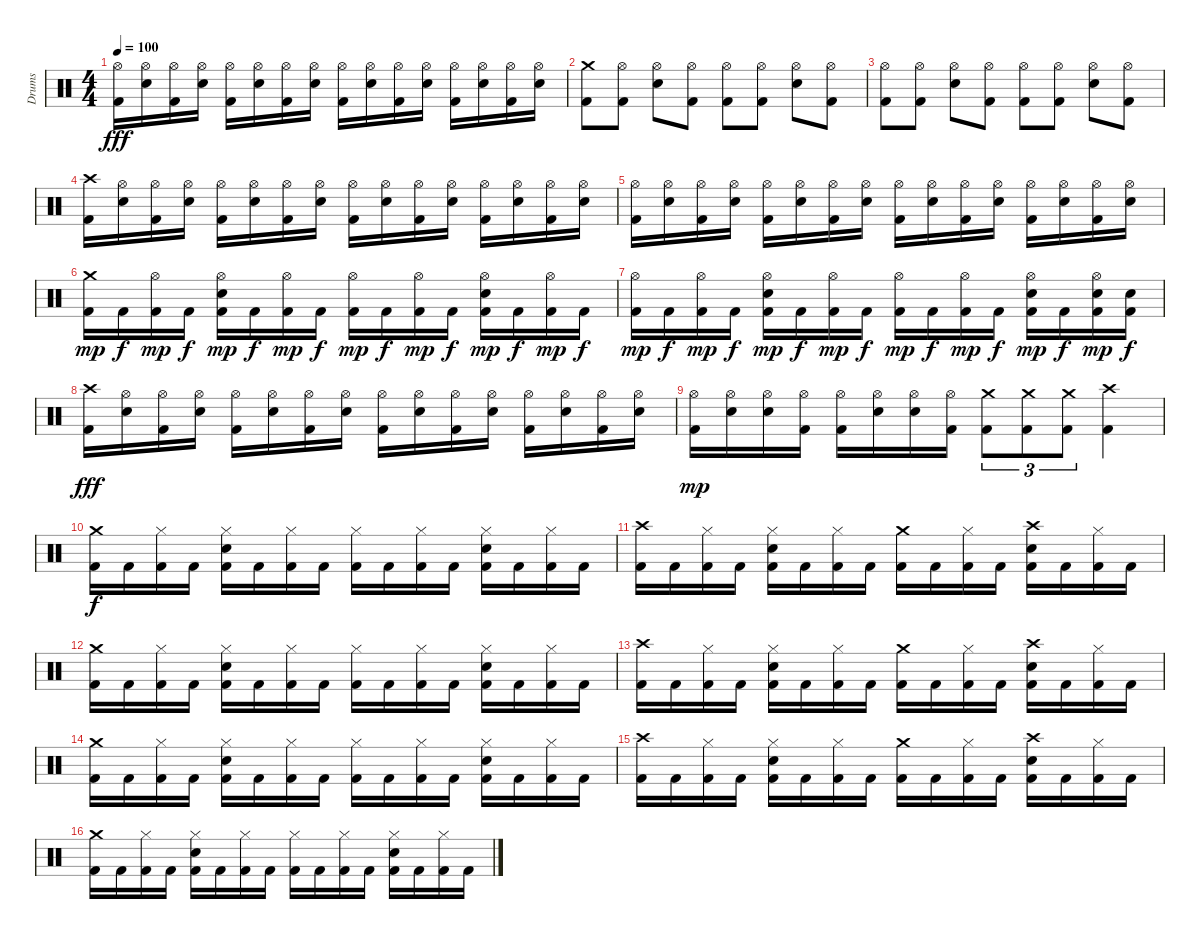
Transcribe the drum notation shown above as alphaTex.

\track ("Drums" "Drums") {instrument percussion}
\staff {score}
\articulation defaults
\ts (4 4)
\tempo 100
\clef neutral
\ks c
("Hi-Hat (open)" "Kick (hit) 2").16{dy fff} ("Hi-Hat (open)" "Snare (hit) 2").16 ("Hi-Hat (open)" "Kick (hit) 2").16 ("Hi-Hat (open)" "Snare (hit) 2").16 ("Hi-Hat (open)" "Kick (hit) 2").16 ("Hi-Hat (open)" "Snare (hit) 2").16 ("Hi-Hat (open)" "Kick (hit) 2").16 ("Hi-Hat (open)" "Snare (hit) 2").16 ("Hi-Hat (open)" "Kick (hit) 2").16 ("Hi-Hat (open)" "Snare (hit) 2").16 ("Hi-Hat (open)" "Kick (hit) 2").16 ("Hi-Hat (open)" "Snare (hit) 2").16 ("Hi-Hat (open)" "Kick (hit) 2").16 ("Hi-Hat (open)" "Snare (hit) 2").16 ("Hi-Hat (open)" "Kick (hit) 2").16 ("Hi-Hat (open)" "Snare (hit) 2").16 |
("Crash medium (hit)" "Kick (hit) 2").8 ("Hi-Hat (open)" "Kick (hit) 2").8 ("Hi-Hat (open)" "Snare (hit) 2").8 ("Hi-Hat (open)" "Kick (hit) 2").8 ("Hi-Hat (open)" "Kick (hit) 2").8 ("Hi-Hat (open)" "Kick (hit) 2").8 ("Hi-Hat (open)" "Snare (hit) 2").8 ("Hi-Hat (open)" "Kick (hit) 2").8 |
("Hi-Hat (open)" "Kick (hit) 2").8 ("Hi-Hat (open)" "Kick (hit) 2").8 ("Hi-Hat (open)" "Snare (hit) 2").8 ("Hi-Hat (open)" "Kick (hit) 2").8 ("Hi-Hat (open)" "Kick (hit) 2").8 ("Hi-Hat (open)" "Kick (hit) 2").8 ("Hi-Hat (open)" "Snare (hit) 2").8 ("Hi-Hat (open)" "Kick (hit) 2").8 |
("Crash high (hit)" "Kick (hit) 2").16 ("Hi-Hat (open)" "Snare (hit) 2").16 ("Hi-Hat (open)" "Kick (hit) 2").16 ("Hi-Hat (open)" "Snare (hit) 2").16 ("Hi-Hat (open)" "Kick (hit) 2").16 ("Hi-Hat (open)" "Snare (hit) 2").16 ("Hi-Hat (open)" "Kick (hit) 2").16 ("Hi-Hat (open)" "Snare (hit) 2").16 ("Hi-Hat (open)" "Kick (hit) 2").16 ("Hi-Hat (open)" "Snare (hit) 2").16 ("Hi-Hat (open)" "Kick (hit) 2").16 ("Hi-Hat (open)" "Snare (hit) 2").16 ("Hi-Hat (open)" "Kick (hit) 2").16 ("Hi-Hat (open)" "Snare (hit) 2").16 ("Hi-Hat (open)" "Kick (hit) 2").16 ("Hi-Hat (open)" "Snare (hit) 2").16 |
("Hi-Hat (open)" "Kick (hit) 2").16 ("Hi-Hat (open)" "Snare (hit) 2").16 ("Hi-Hat (open)" "Kick (hit) 2").16 ("Hi-Hat (open)" "Snare (hit) 2").16 ("Hi-Hat (open)" "Kick (hit) 2").16 ("Hi-Hat (open)" "Snare (hit) 2").16 ("Hi-Hat (open)" "Kick (hit) 2").16 ("Hi-Hat (open)" "Snare (hit) 2").16 ("Hi-Hat (open)" "Kick (hit) 2").16 ("Hi-Hat (open)" "Snare (hit) 2").16 ("Hi-Hat (open)" "Kick (hit) 2").16 ("Hi-Hat (open)" "Snare (hit) 2").16 ("Hi-Hat (open)" "Kick (hit) 2").16 ("Hi-Hat (open)" "Snare (hit) 2").16 ("Hi-Hat (open)" "Kick (hit) 2").16 ("Hi-Hat (open)" "Snare (hit) 2").16 |
("Crash medium (hit)" "Kick (hit) 2").16{dy mp} "Kick (hit) 2".16{dy f} ("Hi-Hat (open)" "Kick (hit) 2").16{dy mp} "Kick (hit) 2".16{dy f} ("Hi-Hat (open)" "Snare (hit) 2" "Kick (hit) 2").16{dy mp} "Kick (hit) 2".16{dy f} ("Hi-Hat (open)" "Kick (hit) 2").16{dy mp} "Kick (hit) 2".16{dy f} ("Hi-Hat (open)" "Kick (hit) 2").16{dy mp} "Kick (hit) 2".16{dy f} ("Hi-Hat (open)" "Kick (hit) 2").16{dy mp} "Kick (hit) 2".16{dy f} ("Hi-Hat (open)" "Snare (hit) 2" "Kick (hit) 2").16{dy mp} "Kick (hit) 2".16{dy f} ("Hi-Hat (open)" "Kick (hit) 2").16{dy mp} "Kick (hit) 2".16{dy f} |
("Hi-Hat (open)" "Kick (hit) 2").16{dy mp} "Kick (hit) 2".16{dy f} ("Hi-Hat (open)" "Kick (hit) 2").16{dy mp} "Kick (hit) 2".16{dy f} ("Hi-Hat (open)" "Snare (hit) 2" "Kick (hit) 2").16{dy mp} "Kick (hit) 2".16{dy f} ("Hi-Hat (open)" "Kick (hit) 2").16{dy mp} "Kick (hit) 2".16{dy f} ("Hi-Hat (open)" "Kick (hit) 2").16{dy mp} "Kick (hit) 2".16{dy f} ("Hi-Hat (open)" "Kick (hit) 2").16{dy mp} "Kick (hit) 2".16{dy f} ("Hi-Hat (open)" "Snare (hit) 2" "Kick (hit) 2").16{dy mp} "Kick (hit) 2".16{dy f} ("Hi-Hat (open)" "Snare (hit) 2" "Kick (hit) 2").16{dy mp} ("Snare (hit) 2" "Kick (hit) 2").16{dy f} |
("Crash high (hit)" "Kick (hit) 2").16{dy fff} ("Hi-Hat (open)" "Snare (hit) 2").16 ("Hi-Hat (open)" "Kick (hit) 2").16 ("Hi-Hat (open)" "Snare (hit) 2").16 ("Hi-Hat (open)" "Kick (hit) 2").16 ("Hi-Hat (open)" "Snare (hit) 2").16 ("Hi-Hat (open)" "Kick (hit) 2").16 ("Hi-Hat (open)" "Snare (hit) 2").16 ("Hi-Hat (open)" "Kick (hit) 2").16 ("Hi-Hat (open)" "Snare (hit) 2").16 ("Hi-Hat (open)" "Kick (hit) 2").16 ("Hi-Hat (open)" "Snare (hit) 2").16 ("Hi-Hat (open)" "Kick (hit) 2").16 ("Hi-Hat (open)" "Snare (hit) 2").16 ("Hi-Hat (open)" "Kick (hit) 2").16 ("Hi-Hat (open)" "Snare (hit) 2").16 |
("Hi-Hat (open)" "Kick (hit) 2").16{dy mp} ("Hi-Hat (open)" "Snare (hit) 2").16 ("Hi-Hat (open)" "Snare (hit) 2").16 ("Hi-Hat (open)" "Kick (hit) 2").16 ("Hi-Hat (open)" "Kick (hit) 2").16 ("Hi-Hat (open)" "Snare (hit) 2").16 ("Hi-Hat (open)" "Snare (hit) 2").16 ("Hi-Hat (open)" "Kick (hit) 2").16 ("Crash medium (hit)" "Kick (hit) 2").8{tu (3 2)} ("Crash medium (hit)" "Kick (hit) 2").8{tu (3 2)} ("Crash medium (hit)" "Kick (hit) 2").8{tu (3 2)} ("Crash high (hit)" "Kick (hit) 2").4 |
("Crash medium (hit)" "Kick (hit) 2").16{dy f} "Kick (hit) 2".16 ("Hi-Hat (closed)" "Kick (hit) 2").16 "Kick (hit) 2".16 ("Hi-Hat (closed)" "Snare (hit) 2" "Kick (hit) 2").16 "Kick (hit) 2".16 ("Hi-Hat (closed)" "Kick (hit) 2").16 "Kick (hit) 2".16 ("Hi-Hat (closed)" "Kick (hit) 2").16 "Kick (hit) 2".16 ("Hi-Hat (closed)" "Kick (hit) 2").16 "Kick (hit) 2".16 ("Hi-Hat (closed)" "Snare (hit) 2" "Kick (hit) 2").16 "Kick (hit) 2".16 ("Hi-Hat (closed)" "Kick (hit) 2").16 "Kick (hit) 2".16 |
("Crash high (hit)" "Kick (hit) 2").16 "Kick (hit) 2".16 ("Hi-Hat (closed)" "Kick (hit) 2").16 "Kick (hit) 2".16 ("Hi-Hat (closed)" "Snare (hit) 2" "Kick (hit) 2").16 "Kick (hit) 2".16 ("Hi-Hat (closed)" "Kick (hit) 2").16 "Kick (hit) 2".16 ("Crash medium (hit)" "Kick (hit) 2").16 "Kick (hit) 2".16 ("Hi-Hat (closed)" "Kick (hit) 2").16 "Kick (hit) 2".16 ("Crash high (hit)" "Snare (hit) 2" "Kick (hit) 2").16 "Kick (hit) 2".16 ("Hi-Hat (closed)" "Kick (hit) 2").16 "Kick (hit) 2".16 |
("Crash medium (hit)" "Kick (hit) 2").16 "Kick (hit) 2".16 ("Hi-Hat (closed)" "Kick (hit) 2").16 "Kick (hit) 2".16 ("Hi-Hat (closed)" "Snare (hit) 2" "Kick (hit) 2").16 "Kick (hit) 2".16 ("Hi-Hat (closed)" "Kick (hit) 2").16 "Kick (hit) 2".16 ("Hi-Hat (closed)" "Kick (hit) 2").16 "Kick (hit) 2".16 ("Hi-Hat (closed)" "Kick (hit) 2").16 "Kick (hit) 2".16 ("Hi-Hat (closed)" "Snare (hit) 2" "Kick (hit) 2").16 "Kick (hit) 2".16 ("Hi-Hat (closed)" "Kick (hit) 2").16 "Kick (hit) 2".16 |
("Crash high (hit)" "Kick (hit) 2").16 "Kick (hit) 2".16 ("Hi-Hat (closed)" "Kick (hit) 2").16 "Kick (hit) 2".16 ("Hi-Hat (closed)" "Snare (hit) 2" "Kick (hit) 2").16 "Kick (hit) 2".16 ("Hi-Hat (closed)" "Kick (hit) 2").16 "Kick (hit) 2".16 ("Crash medium (hit)" "Kick (hit) 2").16 "Kick (hit) 2".16 ("Hi-Hat (closed)" "Kick (hit) 2").16 "Kick (hit) 2".16 ("Crash high (hit)" "Snare (hit) 2" "Kick (hit) 2").16 "Kick (hit) 2".16 ("Hi-Hat (closed)" "Kick (hit) 2").16 "Kick (hit) 2".16 |
("Crash medium (hit)" "Kick (hit) 2").16 "Kick (hit) 2".16 ("Hi-Hat (closed)" "Kick (hit) 2").16 "Kick (hit) 2".16 ("Hi-Hat (closed)" "Snare (hit) 2" "Kick (hit) 2").16 "Kick (hit) 2".16 ("Hi-Hat (closed)" "Kick (hit) 2").16 "Kick (hit) 2".16 ("Hi-Hat (closed)" "Kick (hit) 2").16 "Kick (hit) 2".16 ("Hi-Hat (closed)" "Kick (hit) 2").16 "Kick (hit) 2".16 ("Hi-Hat (closed)" "Snare (hit) 2" "Kick (hit) 2").16 "Kick (hit) 2".16 ("Hi-Hat (closed)" "Kick (hit) 2").16 "Kick (hit) 2".16 |
("Crash high (hit)" "Kick (hit) 2").16 "Kick (hit) 2".16 ("Hi-Hat (closed)" "Kick (hit) 2").16 "Kick (hit) 2".16 ("Hi-Hat (closed)" "Snare (hit) 2" "Kick (hit) 2").16 "Kick (hit) 2".16 ("Hi-Hat (closed)" "Kick (hit) 2").16 "Kick (hit) 2".16 ("Crash medium (hit)" "Kick (hit) 2").16 "Kick (hit) 2".16 ("Hi-Hat (closed)" "Kick (hit) 2").16 "Kick (hit) 2".16 ("Crash high (hit)" "Snare (hit) 2" "Kick (hit) 2").16 "Kick (hit) 2".16 ("Hi-Hat (closed)" "Kick (hit) 2").16 "Kick (hit) 2".16 |
("Crash medium (hit)" "Kick (hit) 2").16 "Kick (hit) 2".16 ("Hi-Hat (closed)" "Kick (hit) 2").16 "Kick (hit) 2".16 ("Hi-Hat (closed)" "Snare (hit) 2" "Kick (hit) 2").16 "Kick (hit) 2".16 ("Hi-Hat (closed)" "Kick (hit) 2").16 "Kick (hit) 2".16 ("Hi-Hat (closed)" "Kick (hit) 2").16 "Kick (hit) 2".16 ("Hi-Hat (closed)" "Kick (hit) 2").16 "Kick (hit) 2".16 ("Hi-Hat (closed)" "Snare (hit) 2" "Kick (hit) 2").16 "Kick (hit) 2".16 ("Hi-Hat (closed)" "Kick (hit) 2").16 "Kick (hit) 2".16
